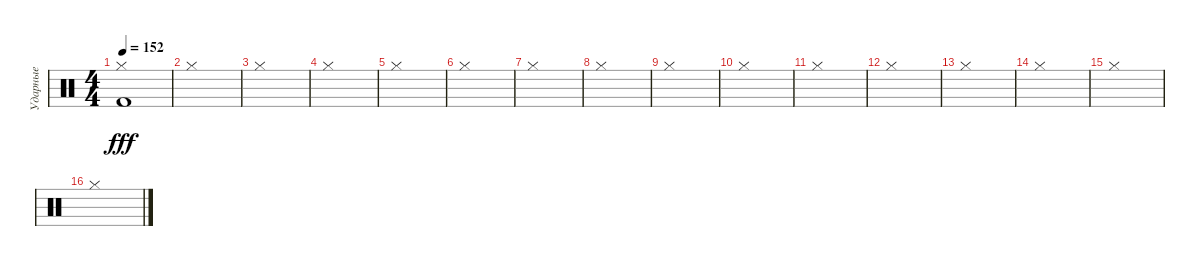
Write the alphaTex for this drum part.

\track ("Ударные" "Ударные") {instrument percussion}
\staff {score}
\articulation defaults
\ts (4 4)
\tempo 152
\clef neutral
\ks c
("Hi-Hat (closed)" "Kick (hit) 2").1{dy fff} |
"Hi-Hat (closed)".1 |
"Hi-Hat (closed)".1 |
"Hi-Hat (closed)".1 |
"Hi-Hat (closed)".1 |
"Hi-Hat (closed)".1 |
"Hi-Hat (closed)".1 |
"Hi-Hat (closed)".1 |
"Hi-Hat (closed)".1 |
"Hi-Hat (closed)".1 |
"Hi-Hat (closed)".1 |
"Hi-Hat (closed)".1 |
"Hi-Hat (closed)".1 |
"Hi-Hat (closed)".1 |
"Hi-Hat (closed)".1 |
"Hi-Hat (closed)".1
